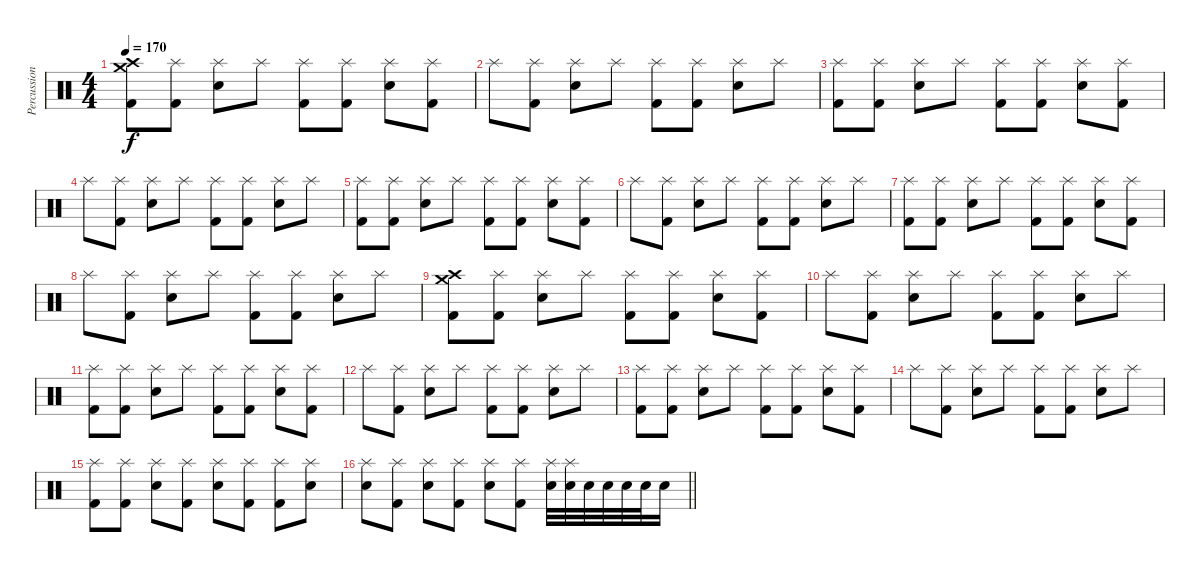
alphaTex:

\track ("Percussion" "Percussion") {instrument percussion}
\staff {score}
\articulation defaults
\ts (4 4)
\tempo 170
\clef neutral
\ks c
("Crash medium (hit)" "Crash high (hit)" "Kick (hit) 2").8{dy f} ("Splash (hit)" "Kick (hit) 2").8 ("Splash (hit)" "Electric Snare (hit)").8 "Splash (hit)".8 ("Splash (hit)" "Kick (hit) 2").8 ("Splash (hit)" "Kick (hit) 2").8 ("Splash (hit)" "Electric Snare (hit)").8 ("Splash (hit)" "Kick (hit) 2").8 |
"Splash (hit)".8 ("Splash (hit)" "Kick (hit) 2").8 ("Splash (hit)" "Electric Snare (hit)").8 "Splash (hit)".8 ("Splash (hit)" "Kick (hit) 2").8 ("Splash (hit)" "Kick (hit) 2").8 ("Splash (hit)" "Electric Snare (hit)").8 "Splash (hit)".8 |
("Splash (hit)" "Kick (hit) 2").8 ("Splash (hit)" "Kick (hit) 2").8 ("Splash (hit)" "Electric Snare (hit)").8 "Splash (hit)".8 ("Splash (hit)" "Kick (hit) 2").8 ("Splash (hit)" "Kick (hit) 2").8 ("Splash (hit)" "Electric Snare (hit)").8 ("Splash (hit)" "Kick (hit) 2").8 |
"Splash (hit)".8 ("Splash (hit)" "Kick (hit) 2").8 ("Splash (hit)" "Electric Snare (hit)").8 "Splash (hit)".8 ("Splash (hit)" "Kick (hit) 2").8 ("Splash (hit)" "Kick (hit) 2").8 ("Splash (hit)" "Electric Snare (hit)").8 "Splash (hit)".8 |
("Splash (hit)" "Kick (hit) 2").8 ("Splash (hit)" "Kick (hit) 2").8 ("Splash (hit)" "Electric Snare (hit)").8 "Splash (hit)".8 ("Splash (hit)" "Kick (hit) 2").8 ("Splash (hit)" "Kick (hit) 2").8 ("Splash (hit)" "Electric Snare (hit)").8 ("Splash (hit)" "Kick (hit) 2").8 |
"Splash (hit)".8 ("Splash (hit)" "Kick (hit) 2").8 ("Splash (hit)" "Electric Snare (hit)").8 "Splash (hit)".8 ("Splash (hit)" "Kick (hit) 2").8 ("Splash (hit)" "Kick (hit) 2").8 ("Splash (hit)" "Electric Snare (hit)").8 "Splash (hit)".8 |
("Splash (hit)" "Kick (hit) 2").8 ("Splash (hit)" "Kick (hit) 2").8 ("Splash (hit)" "Electric Snare (hit)").8 "Splash (hit)".8 ("Splash (hit)" "Kick (hit) 2").8 ("Splash (hit)" "Kick (hit) 2").8 ("Splash (hit)" "Electric Snare (hit)").8 ("Splash (hit)" "Kick (hit) 2").8 |
"Splash (hit)".8 ("Splash (hit)" "Kick (hit) 2").8 ("Splash (hit)" "Electric Snare (hit)").8 "Splash (hit)".8 ("Splash (hit)" "Kick (hit) 2").8 ("Splash (hit)" "Kick (hit) 2").8 ("Splash (hit)" "Electric Snare (hit)").8 "Splash (hit)".8 |
("Crash medium (hit)" "Crash high (hit)" "Kick (hit) 2").8 ("Splash (hit)" "Kick (hit) 2").8 ("Splash (hit)" "Electric Snare (hit)").8 "Splash (hit)".8 ("Splash (hit)" "Kick (hit) 2").8 ("Splash (hit)" "Kick (hit) 2").8 ("Splash (hit)" "Electric Snare (hit)").8 ("Splash (hit)" "Kick (hit) 2").8 |
"Splash (hit)".8 ("Splash (hit)" "Kick (hit) 2").8 ("Splash (hit)" "Electric Snare (hit)").8 "Splash (hit)".8 ("Splash (hit)" "Kick (hit) 2").8 ("Splash (hit)" "Kick (hit) 2").8 ("Splash (hit)" "Electric Snare (hit)").8 "Splash (hit)".8 |
("Splash (hit)" "Kick (hit) 2").8 ("Splash (hit)" "Kick (hit) 2").8 ("Splash (hit)" "Electric Snare (hit)").8 "Splash (hit)".8 ("Splash (hit)" "Kick (hit) 2").8 ("Splash (hit)" "Kick (hit) 2").8 ("Splash (hit)" "Electric Snare (hit)").8 ("Splash (hit)" "Kick (hit) 2").8 |
"Splash (hit)".8 ("Splash (hit)" "Kick (hit) 2").8 ("Splash (hit)" "Electric Snare (hit)").8 "Splash (hit)".8 ("Splash (hit)" "Kick (hit) 2").8 ("Splash (hit)" "Kick (hit) 2").8 ("Splash (hit)" "Electric Snare (hit)").8 "Splash (hit)".8 |
("Splash (hit)" "Kick (hit) 2").8 ("Splash (hit)" "Kick (hit) 2").8 ("Splash (hit)" "Electric Snare (hit)").8 "Splash (hit)".8 ("Splash (hit)" "Kick (hit) 2").8 ("Splash (hit)" "Kick (hit) 2").8 ("Splash (hit)" "Electric Snare (hit)").8 ("Splash (hit)" "Kick (hit) 2").8 |
"Splash (hit)".8 ("Splash (hit)" "Kick (hit) 2").8 ("Splash (hit)" "Electric Snare (hit)").8 "Splash (hit)".8 ("Splash (hit)" "Kick (hit) 2").8 ("Splash (hit)" "Kick (hit) 2").8 ("Splash (hit)" "Electric Snare (hit)").8 "Splash (hit)".8 |
("Splash (hit)" "Kick (hit) 2").8 ("Splash (hit)" "Kick (hit) 2").8 ("Splash (hit)" "Electric Snare (hit)").8 ("Splash (hit)" "Kick (hit) 2").8 ("Splash (hit)" "Electric Snare (hit)").8 ("Splash (hit)" "Kick (hit) 2").8 ("Splash (hit)" "Kick (hit) 2").8 ("Splash (hit)" "Electric Snare (hit)").8 |
\barLineRight lightlight
("Splash (hit)" "Electric Snare (hit)").8 ("Splash (hit)" "Kick (hit) 2").8 ("Splash (hit)" "Electric Snare (hit)").8 ("Splash (hit)" "Kick (hit) 2").8 ("Splash (hit)" "Electric Snare (hit)").8 ("Splash (hit)" "Kick (hit) 2").8 ("Splash (hit)" "Electric Snare (hit)").32 ("Splash (hit)" "Electric Snare (hit)").32 "Electric Snare (hit)".32 "Electric Snare (hit)".32 "Electric Snare (hit)".32 "Electric Snare (hit)".32 "Electric Snare (hit)".16
